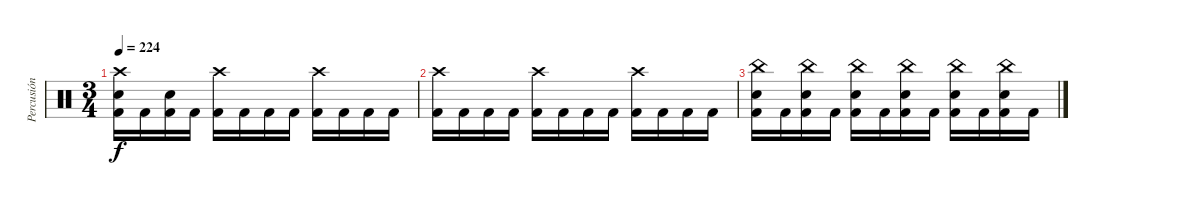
\track ("Percusión" "Percusión") {instrument percussion}
\staff {score}
\articulation defaults
\ts (3 4)
\tempo 224
\clef neutral
\ks c
("Crash high (hit)" "Electric Snare (hit)" "Kick (hit) 2").16{dy f} "Kick (hit) 2".16 ("Electric Snare (hit)" "Kick (hit) 2").16 "Kick (hit) 2".16 ("Crash high (hit)" "Kick (hit) 2").16 "Kick (hit) 2".16 "Kick (hit) 2".16 "Kick (hit) 2".16 ("Crash high (hit)" "Kick (hit) 2").16 "Kick (hit) 2".16 "Kick (hit) 2".16 "Kick (hit) 2".16 |
("Crash high (hit)" "Kick (hit) 2").16 "Kick (hit) 2".16 "Kick (hit) 2".16 "Kick (hit) 2".16 ("Crash high (hit)" "Kick (hit) 2").16 "Kick (hit) 2".16 "Kick (hit) 2".16 "Kick (hit) 2".16 ("Crash high (hit)" "Kick (hit) 2").16 "Kick (hit) 2".16 "Kick (hit) 2".16 "Kick (hit) 2".16 |
("China (hit)" "Electric Snare (hit)" "Kick (hit) 2").16 "Kick (hit) 2".16 ("China (hit)" "Electric Snare (hit)" "Kick (hit) 2").16 "Kick (hit) 2".16 ("China (hit)" "Electric Snare (hit)" "Kick (hit) 2").16 "Kick (hit) 2".16 ("China (hit)" "Electric Snare (hit)" "Kick (hit) 2").16 "Kick (hit) 2".16 ("China (hit)" "Electric Snare (hit)" "Kick (hit) 2").16 "Kick (hit) 2".16 ("China (hit)" "Electric Snare (hit)" "Kick (hit) 2").16 "Kick (hit) 2".16
